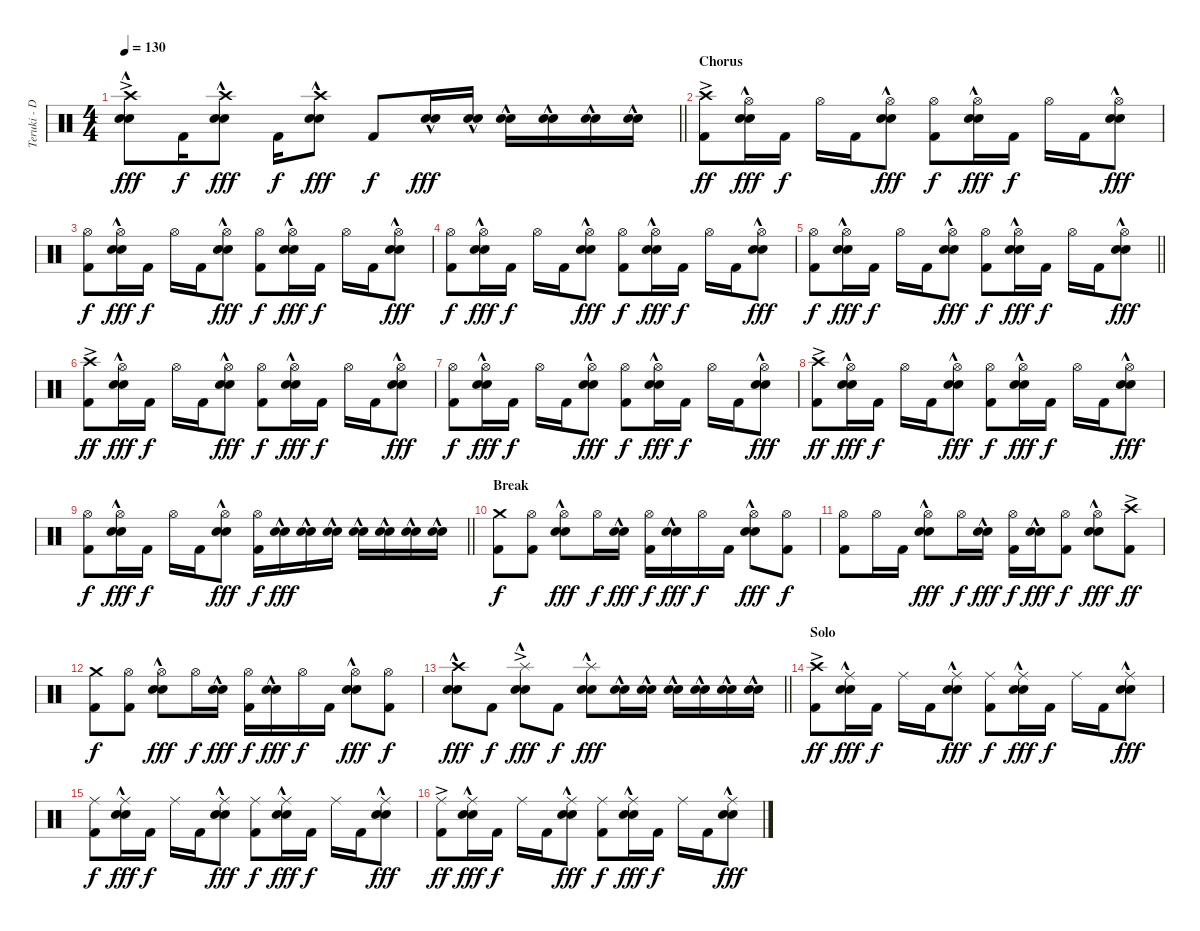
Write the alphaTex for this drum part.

\track ("Teruki - Drums" "Teruki - D") {instrument percussion}
\staff {score}
\articulation defaults
\ts (4 4)
\tempo 130
\clef neutral
\barLineRight lightlight
\ks c
("Crash high (hit)"{ac} "Electric Snare (hit)"{hac} "Snare (hit) 2").8{dy fff} "Kick (hit) 2".16{dy f} ("Crash high (hit)" "Electric Snare (hit)"{hac} "Snare (hit) 2").8{dy fff} "Kick (hit) 2".16{dy f} ("Crash high (hit)" "Electric Snare (hit)"{hac} "Snare (hit) 2").8{dy fff} "Kick (hit) 2".8{dy f} ("Electric Snare (hit)"{hac} "Snare (hit) 2").16{dy fff} ("Electric Snare (hit)"{hac} "Snare (hit) 2").16 ("Electric Snare (hit)"{hac} "Snare (hit) 2").16 ("Electric Snare (hit)"{hac} "Snare (hit) 2").16 ("Electric Snare (hit)"{hac} "Snare (hit) 2").16 ("Electric Snare (hit)"{hac} "Snare (hit) 2").16 |
\section ("" "Chorus")
("Crash high (hit)"{ac} "Kick (hit) 2").8{dy ff} ("Hi-Hat (open)" "Electric Snare (hit)"{hac} "Snare (hit) 2").16{dy fff} "Kick (hit) 2".16{dy f} "Hi-Hat (open)".16 "Kick (hit) 2".16 ("Hi-Hat (open)" "Electric Snare (hit)"{hac} "Snare (hit) 2").8{dy fff} ("Hi-Hat (open)" "Kick (hit) 2").8{dy f} ("Hi-Hat (open)" "Electric Snare (hit)"{hac} "Snare (hit) 2").16{dy fff} "Kick (hit) 2".16{dy f} "Hi-Hat (open)".16 "Kick (hit) 2".16 ("Hi-Hat (open)" "Electric Snare (hit)"{hac} "Snare (hit) 2").8{dy fff} |
("Hi-Hat (open)" "Kick (hit) 2").8{dy f} ("Hi-Hat (open)" "Electric Snare (hit)"{hac} "Snare (hit) 2").16{dy fff} "Kick (hit) 2".16{dy f} "Hi-Hat (open)".16 "Kick (hit) 2".16 ("Hi-Hat (open)" "Electric Snare (hit)"{hac} "Snare (hit) 2").8{dy fff} ("Hi-Hat (open)" "Kick (hit) 2").8{dy f} ("Hi-Hat (open)" "Electric Snare (hit)"{hac} "Snare (hit) 2").16{dy fff} "Kick (hit) 2".16{dy f} "Hi-Hat (open)".16 "Kick (hit) 2".16 ("Hi-Hat (open)" "Electric Snare (hit)"{hac} "Snare (hit) 2").8{dy fff} |
("Hi-Hat (open)" "Kick (hit) 2").8{dy f} ("Hi-Hat (open)" "Electric Snare (hit)"{hac} "Snare (hit) 2").16{dy fff} "Kick (hit) 2".16{dy f} "Hi-Hat (open)".16 "Kick (hit) 2".16 ("Hi-Hat (open)" "Electric Snare (hit)"{hac} "Snare (hit) 2").8{dy fff} ("Hi-Hat (open)" "Kick (hit) 2").8{dy f} ("Hi-Hat (open)" "Electric Snare (hit)"{hac} "Snare (hit) 2").16{dy fff} "Kick (hit) 2".16{dy f} "Hi-Hat (open)".16 "Kick (hit) 2".16 ("Hi-Hat (open)" "Electric Snare (hit)"{hac} "Snare (hit) 2").8{dy fff} |
\barLineRight lightlight
("Hi-Hat (open)" "Kick (hit) 2").8{dy f} ("Hi-Hat (open)" "Electric Snare (hit)"{hac} "Snare (hit) 2").16{dy fff} "Kick (hit) 2".16{dy f} "Hi-Hat (open)".16 "Kick (hit) 2".16 ("Hi-Hat (open)" "Electric Snare (hit)"{hac} "Snare (hit) 2").8{dy fff} ("Hi-Hat (open)" "Kick (hit) 2").8{dy f} ("Hi-Hat (open)" "Electric Snare (hit)"{hac} "Snare (hit) 2").16{dy fff} "Kick (hit) 2".16{dy f} "Hi-Hat (open)".16 "Kick (hit) 2".16 ("Hi-Hat (open)" "Electric Snare (hit)"{hac} "Snare (hit) 2").8{dy fff} |
("Crash high (hit)"{ac} "Kick (hit) 2").8{dy ff} ("Hi-Hat (open)" "Electric Snare (hit)"{hac} "Snare (hit) 2").16{dy fff} "Kick (hit) 2".16{dy f} "Hi-Hat (open)".16 "Kick (hit) 2".16 ("Hi-Hat (open)" "Electric Snare (hit)"{hac} "Snare (hit) 2").8{dy fff} ("Hi-Hat (open)" "Kick (hit) 2").8{dy f} ("Hi-Hat (open)" "Electric Snare (hit)"{hac} "Snare (hit) 2").16{dy fff} "Kick (hit) 2".16{dy f} "Hi-Hat (open)".16 "Kick (hit) 2".16 ("Hi-Hat (open)" "Electric Snare (hit)"{hac} "Snare (hit) 2").8{dy fff} |
("Hi-Hat (open)" "Kick (hit) 2").8{dy f} ("Hi-Hat (open)" "Electric Snare (hit)"{hac} "Snare (hit) 2").16{dy fff} "Kick (hit) 2".16{dy f} "Hi-Hat (open)".16 "Kick (hit) 2".16 ("Hi-Hat (open)" "Electric Snare (hit)"{hac} "Snare (hit) 2").8{dy fff} ("Hi-Hat (open)" "Kick (hit) 2").8{dy f} ("Hi-Hat (open)" "Electric Snare (hit)"{hac} "Snare (hit) 2").16{dy fff} "Kick (hit) 2".16{dy f} "Hi-Hat (open)".16 "Kick (hit) 2".16 ("Hi-Hat (open)" "Electric Snare (hit)"{hac} "Snare (hit) 2").8{dy fff} |
("Crash high (hit)"{ac} "Kick (hit) 2").8{dy ff} ("Hi-Hat (open)" "Electric Snare (hit)"{hac} "Snare (hit) 2").16{dy fff} "Kick (hit) 2".16{dy f} "Hi-Hat (open)".16 "Kick (hit) 2".16 ("Hi-Hat (open)" "Electric Snare (hit)"{hac} "Snare (hit) 2").8{dy fff} ("Hi-Hat (open)" "Kick (hit) 2").8{dy f} ("Hi-Hat (open)" "Electric Snare (hit)"{hac} "Snare (hit) 2").16{dy fff} "Kick (hit) 2".16{dy f} "Hi-Hat (open)".16 "Kick (hit) 2".16 ("Hi-Hat (open)" "Electric Snare (hit)"{hac} "Snare (hit) 2").8{dy fff} |
\barLineRight lightlight
("Hi-Hat (open)" "Kick (hit) 2").8{dy f} ("Hi-Hat (open)" "Electric Snare (hit)"{hac} "Snare (hit) 2").16{dy fff} "Kick (hit) 2".16{dy f} "Hi-Hat (open)".16 "Kick (hit) 2".16 ("Hi-Hat (open)" "Electric Snare (hit)"{hac} "Snare (hit) 2").8{dy fff} ("Hi-Hat (open)" "Kick (hit) 2").16{dy f} ("Electric Snare (hit)"{hac} "Snare (hit) 2").16{dy fff} ("Electric Snare (hit)"{hac} "Snare (hit) 2").16 ("Electric Snare (hit)"{hac} "Snare (hit) 2").16 ("Electric Snare (hit)"{hac} "Snare (hit) 2").16 ("Electric Snare (hit)"{hac} "Snare (hit) 2").16 ("Electric Snare (hit)"{hac} "Snare (hit) 2").16 ("Electric Snare (hit)"{hac} "Snare (hit) 2").16 |
\section ("" "Break")
("Crash medium (hit)" "Kick (hit) 2").8{dy f} ("Hi-Hat (open)" "Kick (hit) 2").8 ("Hi-Hat (open)" "Electric Snare (hit)"{hac} "Snare (hit) 2").8{dy fff} "Hi-Hat (open)".16{dy f} ("Electric Snare (hit)"{hac} "Snare (hit) 2").16{dy fff} ("Hi-Hat (open)" "Kick (hit) 2").16{dy f} ("Electric Snare (hit)"{hac} "Snare (hit) 2").16{dy fff} "Hi-Hat (open)".16{dy f} "Kick (hit) 2".16 ("Hi-Hat (open)" "Electric Snare (hit)"{hac} "Snare (hit) 2").8{dy fff} ("Hi-Hat (open)" "Kick (hit) 2").8{dy f} |
("Hi-Hat (open)" "Kick (hit) 2").8 "Hi-Hat (open)".16 "Kick (hit) 2".16 ("Hi-Hat (open)" "Electric Snare (hit)"{hac} "Snare (hit) 2").8{dy fff} "Hi-Hat (open)".16{dy f} ("Electric Snare (hit)"{hac} "Snare (hit) 2").16{dy fff} ("Hi-Hat (open)" "Kick (hit) 2").16{dy f} ("Electric Snare (hit)"{hac} "Snare (hit) 2").16{dy fff} ("Hi-Hat (open)" "Kick (hit) 2").8{dy f} ("Hi-Hat (open)" "Electric Snare (hit)"{hac} "Snare (hit) 2").8{dy fff} ("Crash high (hit)"{ac} "Kick (hit) 2").8{dy ff} |
("Crash medium (hit)" "Kick (hit) 2").8{dy f} ("Hi-Hat (open)" "Kick (hit) 2").8 ("Hi-Hat (open)" "Electric Snare (hit)"{hac} "Snare (hit) 2").8{dy fff} "Hi-Hat (open)".16{dy f} ("Electric Snare (hit)"{hac} "Snare (hit) 2").16{dy fff} ("Hi-Hat (open)" "Kick (hit) 2").16{dy f} ("Electric Snare (hit)"{hac} "Snare (hit) 2").16{dy fff} "Hi-Hat (open)".16{dy f} "Kick (hit) 2".16 ("Hi-Hat (open)" "Electric Snare (hit)"{hac} "Snare (hit) 2").8{dy fff} ("Hi-Hat (open)" "Kick (hit) 2").8{dy f} |
\barLineRight lightlight
("Crash high (hit)" "Electric Snare (hit)"{hac} "Snare (hit) 2").8{dy fff} "Kick (hit) 2".8{dy f} ("Splash (hit)"{ac} "Electric Snare (hit)"{hac} "Snare (hit) 2").8{dy fff} "Kick (hit) 2".8{dy f} ("Splash (hit)"{hac} "Electric Snare (hit)"{hac} "Snare (hit) 2").8{dy fff} ("Electric Snare (hit)"{hac} "Snare (hit) 2").16 ("Electric Snare (hit)"{hac} "Snare (hit) 2").16 ("Electric Snare (hit)"{hac} "Snare (hit) 2").16 ("Electric Snare (hit)"{hac} "Snare (hit) 2").16 ("Electric Snare (hit)"{hac} "Snare (hit) 2").16 ("Electric Snare (hit)"{hac} "Snare (hit) 2").16 |
\section ("" "Solo")
("Crash high (hit)"{ac} "Kick (hit) 2").8{dy ff} ("Ride (middle)" "Electric Snare (hit)"{hac} "Snare (hit) 2").16{dy fff} "Kick (hit) 2".16{dy f} "Ride (middle)".16 "Kick (hit) 2".16 ("Ride (middle)" "Electric Snare (hit)"{hac} "Snare (hit) 2").8{dy fff} ("Ride (middle)" "Kick (hit) 2").8{dy f} ("Ride (middle)" "Electric Snare (hit)"{hac} "Snare (hit) 2").16{dy fff} "Kick (hit) 2".16{dy f} "Ride (middle)".16 "Kick (hit) 2".16 ("Ride (middle)" "Electric Snare (hit)"{hac} "Snare (hit) 2").8{dy fff} |
("Ride (middle)" "Kick (hit) 2").8{dy f} ("Ride (middle)" "Electric Snare (hit)"{hac} "Snare (hit) 2").16{dy fff} "Kick (hit) 2".16{dy f} "Ride (middle)".16 "Kick (hit) 2".16 ("Ride (middle)" "Electric Snare (hit)"{hac} "Snare (hit) 2").8{dy fff} ("Ride (middle)" "Kick (hit) 2").8{dy f} ("Ride (middle)" "Electric Snare (hit)"{hac} "Snare (hit) 2").16{dy fff} "Kick (hit) 2".16{dy f} "Ride (middle)".16 "Kick (hit) 2".16 ("Ride (middle)" "Electric Snare (hit)"{hac} "Snare (hit) 2").8{dy fff} |
("Ride (middle)"{ac} "Kick (hit) 2").8{dy ff} ("Ride (middle)" "Electric Snare (hit)"{hac} "Snare (hit) 2").16{dy fff} "Kick (hit) 2".16{dy f} "Ride (middle)".16 "Kick (hit) 2".16 ("Ride (middle)" "Electric Snare (hit)"{hac} "Snare (hit) 2").8{dy fff} ("Ride (middle)" "Kick (hit) 2").8{dy f} ("Ride (middle)" "Electric Snare (hit)"{hac} "Snare (hit) 2").16{dy fff} "Kick (hit) 2".16{dy f} "Ride (middle)".16 "Kick (hit) 2".16 ("Ride (middle)" "Electric Snare (hit)"{hac} "Snare (hit) 2").8{dy fff}
